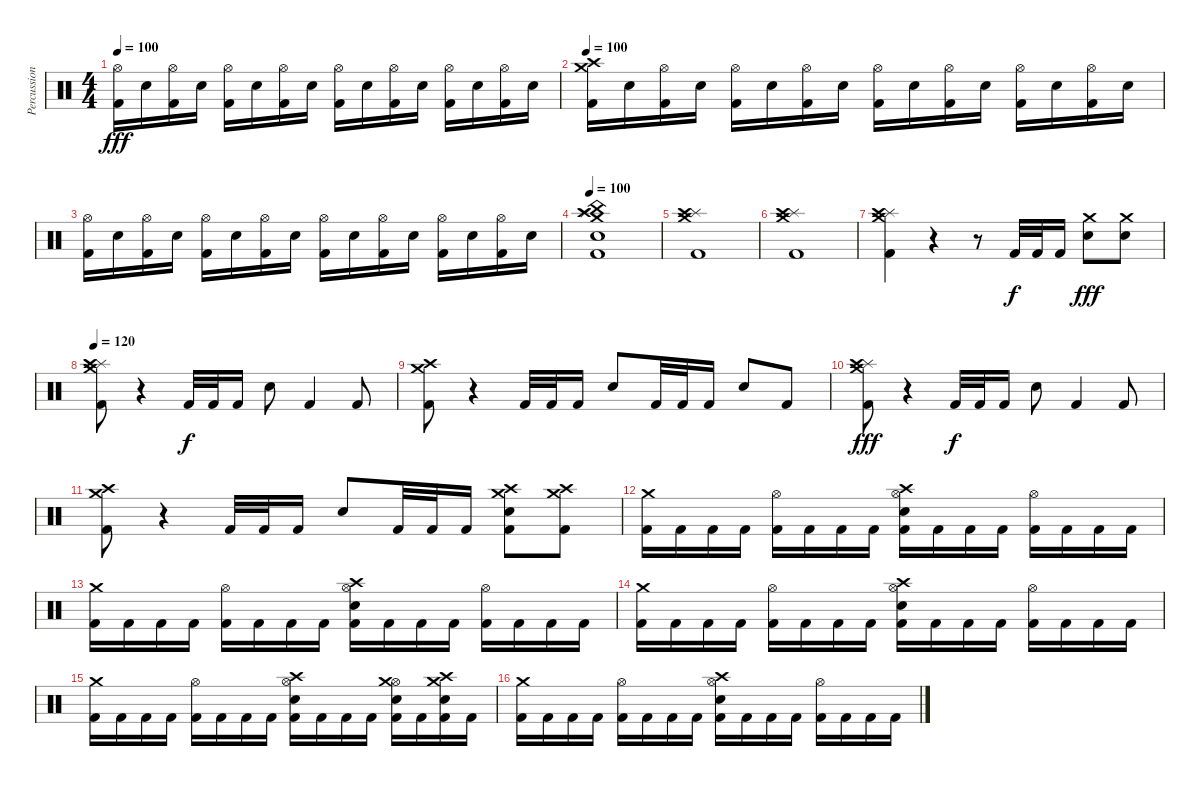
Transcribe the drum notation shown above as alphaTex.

\track ("Percussion" "Percussion") {instrument percussion}
\staff
\articulation defaults
\ts (4 4)
\tempo 100
\clef neutral
\ks c
("Hi-Hat (open)" "Kick (hit) 2").16{dy fff} "Snare (hit) 2".16 ("Hi-Hat (open)" "Kick (hit) 2").16 "Snare (hit) 2".16 ("Hi-Hat (open)" "Kick (hit) 2").16 "Snare (hit) 2".16 ("Hi-Hat (open)" "Kick (hit) 2").16 "Snare (hit) 2".16 ("Hi-Hat (open)" "Kick (hit) 2").16 "Snare (hit) 2".16 ("Hi-Hat (open)" "Kick (hit) 2").16 "Snare (hit) 2".16 ("Hi-Hat (open)" "Kick (hit) 2").16 "Snare (hit) 2".16 ("Hi-Hat (open)" "Kick (hit) 2").16 "Snare (hit) 2".16 |
\tempo 100
("Crash high (hit)" "Crash medium (hit)" "Kick (hit) 2").16 "Snare (hit) 2".16 ("Hi-Hat (open)" "Kick (hit) 2").16 "Snare (hit) 2".16 ("Hi-Hat (open)" "Kick (hit) 2").16 "Snare (hit) 2".16 ("Hi-Hat (open)" "Kick (hit) 2").16 "Snare (hit) 2".16 ("Hi-Hat (open)" "Kick (hit) 2").16 "Snare (hit) 2".16 ("Hi-Hat (open)" "Kick (hit) 2").16 "Snare (hit) 2".16 ("Hi-Hat (open)" "Kick (hit) 2").16 "Snare (hit) 2".16 ("Hi-Hat (open)" "Kick (hit) 2").16 "Snare (hit) 2".16 |
("Hi-Hat (open)" "Kick (hit) 2").16 "Snare (hit) 2".16 ("Hi-Hat (open)" "Kick (hit) 2").16 "Snare (hit) 2".16 ("Hi-Hat (open)" "Kick (hit) 2").16 "Snare (hit) 2".16 ("Hi-Hat (open)" "Kick (hit) 2").16 "Snare (hit) 2".16 ("Hi-Hat (open)" "Kick (hit) 2").16 "Snare (hit) 2".16 ("Hi-Hat (open)" "Kick (hit) 2").16 "Snare (hit) 2".16 ("Hi-Hat (open)" "Kick (hit) 2").16 "Snare (hit) 2".16 ("Hi-Hat (open)" "Kick (hit) 2").16 "Snare (hit) 2".16 |
\tempo 100
("Snare (hit) 2" "China (hit)" "Splash (hit)" "Crash high (hit)" "Crash medium (hit)" "Kick (hit) 2").1 |
("Splash (hit)" "Crash high (hit)" "Crash medium (hit)" "Kick (hit) 2").1 |
("Splash (hit)" "Crash high (hit)" "Crash medium (hit)" "Kick (hit) 2").1 |
("Splash (hit)" "Crash high (hit)" "Crash medium (hit)" "Kick (hit) 2").4 r.4 r.8 "Kick (hit) 2".32{dy f} "Kick (hit) 2".32 "Kick (hit) 2".16 ("Crash medium (hit)" "Snare (hit) 2").8{dy fff} ("Crash medium (hit)" "Snare (hit) 2").8 |
\tempo 120
("Splash (hit)" "Crash high (hit)" "Crash medium (hit)" "Kick (hit) 2").8 r.4 "Kick (hit) 2".32{dy f} "Kick (hit) 2".32 "Kick (hit) 2".16 "Snare (hit) 2".8 "Kick (hit) 2".4 "Kick (hit) 2".8 |
("Crash high (hit)" "Crash medium (hit)" "Kick (hit) 2").8 r.4 "Kick (hit) 2".32 "Kick (hit) 2".32 "Kick (hit) 2".16 "Snare (hit) 2".8 "Kick (hit) 2".32 "Kick (hit) 2".32 "Kick (hit) 2".16 "Snare (hit) 2".8 "Kick (hit) 2".8 |
("Splash (hit)" "Crash high (hit)" "Crash medium (hit)" "Kick (hit) 2").8{dy fff} r.4 "Kick (hit) 2".32{dy f} "Kick (hit) 2".32 "Kick (hit) 2".16 "Snare (hit) 2".8 "Kick (hit) 2".4 "Kick (hit) 2".8 |
("Crash high (hit)" "Crash medium (hit)" "Kick (hit) 2").8 r.4 "Kick (hit) 2".32 "Kick (hit) 2".32 "Kick (hit) 2".16 "Snare (hit) 2".8 "Kick (hit) 2".32 "Kick (hit) 2".32 "Kick (hit) 2".16 ("Snare (hit) 2" "Crash medium (hit)" "Crash high (hit)" "Kick (hit) 2").8 ("Crash high (hit)" "Crash medium (hit)" "Kick (hit) 2").8 |
("Crash medium (hit)" "Kick (hit) 2").16 "Kick (hit) 2".16 "Kick (hit) 2".16 "Kick (hit) 2".16 ("Hi-Hat (open)" "Kick (hit) 2").16 "Kick (hit) 2".16 "Kick (hit) 2".16 "Kick (hit) 2".16 ("Hi-Hat (open)" "Crash high (hit)" "Snare (hit) 2" "Kick (hit) 2").16 "Kick (hit) 2".16 "Kick (hit) 2".16 "Kick (hit) 2".16 ("Hi-Hat (open)" "Kick (hit) 2").16 "Kick (hit) 2".16 "Kick (hit) 2".16 "Kick (hit) 2".16 |
("Crash medium (hit)" "Kick (hit) 2").16 "Kick (hit) 2".16 "Kick (hit) 2".16 "Kick (hit) 2".16 ("Hi-Hat (open)" "Kick (hit) 2").16 "Kick (hit) 2".16 "Kick (hit) 2".16 "Kick (hit) 2".16 ("Hi-Hat (open)" "Crash high (hit)" "Snare (hit) 2" "Kick (hit) 2").16 "Kick (hit) 2".16 "Kick (hit) 2".16 "Kick (hit) 2".16 ("Hi-Hat (open)" "Kick (hit) 2").16 "Kick (hit) 2".16 "Kick (hit) 2".16 "Kick (hit) 2".16 |
("Crash medium (hit)" "Kick (hit) 2").16 "Kick (hit) 2".16 "Kick (hit) 2".16 "Kick (hit) 2".16 ("Hi-Hat (open)" "Kick (hit) 2").16 "Kick (hit) 2".16 "Kick (hit) 2".16 "Kick (hit) 2".16 ("Hi-Hat (open)" "Crash high (hit)" "Snare (hit) 2" "Kick (hit) 2").16 "Kick (hit) 2".16 "Kick (hit) 2".16 "Kick (hit) 2".16 ("Hi-Hat (open)" "Kick (hit) 2").16 "Kick (hit) 2".16 "Kick (hit) 2".16 "Kick (hit) 2".16 |
("Crash medium (hit)" "Kick (hit) 2").16 "Kick (hit) 2".16 "Kick (hit) 2".16 "Kick (hit) 2".16 ("Hi-Hat (open)" "Kick (hit) 2").16 "Kick (hit) 2".16 "Kick (hit) 2".16 "Kick (hit) 2".16 ("Hi-Hat (open)" "Crash high (hit)" "Snare (hit) 2" "Kick (hit) 2").16 "Kick (hit) 2".16 "Kick (hit) 2".16 "Kick (hit) 2".16 ("Hi-Hat (open)" "Crash medium (hit)" "Snare (hit) 2" "Kick (hit) 2").16 "Kick (hit) 2".16 ("Crash high (hit)" "Crash medium (hit)" "Snare (hit) 2" "Kick (hit) 2").16 "Kick (hit) 2".16 |
("Crash medium (hit)" "Kick (hit) 2").16 "Kick (hit) 2".16 "Kick (hit) 2".16 "Kick (hit) 2".16 ("Hi-Hat (open)" "Kick (hit) 2").16 "Kick (hit) 2".16 "Kick (hit) 2".16 "Kick (hit) 2".16 ("Hi-Hat (open)" "Crash high (hit)" "Snare (hit) 2" "Kick (hit) 2").16 "Kick (hit) 2".16 "Kick (hit) 2".16 "Kick (hit) 2".16 ("Hi-Hat (open)" "Kick (hit) 2").16 "Kick (hit) 2".16 "Kick (hit) 2".16 "Kick (hit) 2".16
